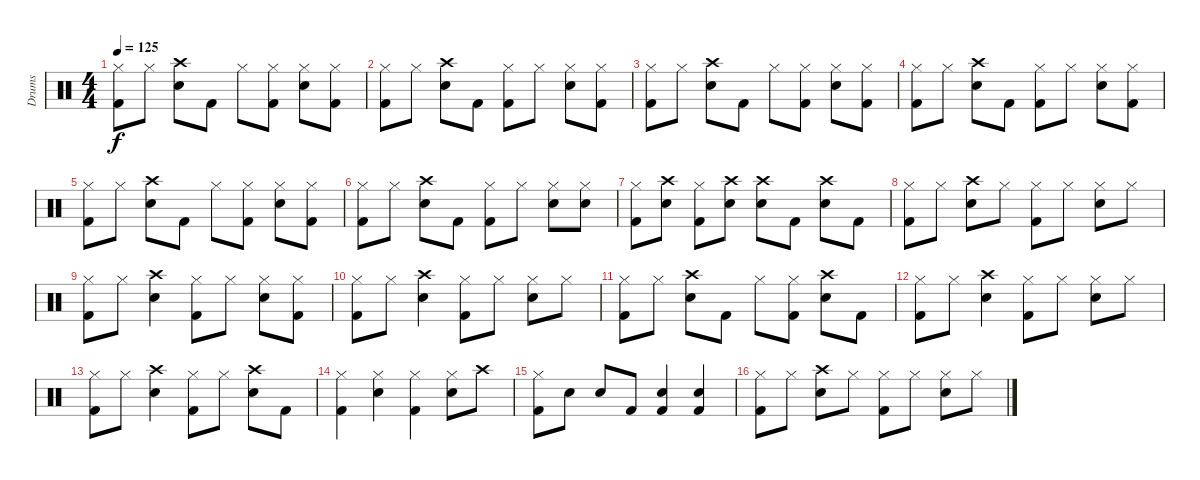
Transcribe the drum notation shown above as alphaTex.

\track ("Drums" "Drums") {instrument percussion}
\staff {score}
\articulation defaults
\ts (4 4)
\tempo 125
\clef neutral
\ks c
("Hi-Hat (closed)" "Kick (hit) 2").8{dy f} "Hi-Hat (closed)".8 ("Crash high (hit)" "Electric Snare (hit)").8 "Kick (hit) 2".8 "Hi-Hat (closed)".8 ("Hi-Hat (closed)" "Kick (hit) 2").8 ("Hi-Hat (closed)" "Electric Snare (hit)").8 ("Hi-Hat (closed)" "Kick (hit) 2").8 |
("Hi-Hat (closed)" "Kick (hit) 2").8 "Hi-Hat (closed)".8 ("Crash high (hit)" "Electric Snare (hit)").8 "Kick (hit) 2".8 ("Hi-Hat (closed)" "Kick (hit) 2").8 "Hi-Hat (closed)".8 ("Hi-Hat (closed)" "Electric Snare (hit)").8 ("Hi-Hat (closed)" "Kick (hit) 2").8 |
("Hi-Hat (closed)" "Kick (hit) 2").8 "Hi-Hat (closed)".8 ("Crash high (hit)" "Electric Snare (hit)").8 "Kick (hit) 2".8 "Hi-Hat (closed)".8 ("Hi-Hat (closed)" "Kick (hit) 2").8 ("Hi-Hat (closed)" "Electric Snare (hit)").8 ("Hi-Hat (closed)" "Kick (hit) 2").8 |
("Hi-Hat (closed)" "Kick (hit) 2").8 "Hi-Hat (closed)".8 ("Crash high (hit)" "Electric Snare (hit)").8 "Kick (hit) 2".8 ("Hi-Hat (closed)" "Kick (hit) 2").8 "Hi-Hat (closed)".8 ("Hi-Hat (closed)" "Electric Snare (hit)").8 ("Hi-Hat (closed)" "Kick (hit) 2").8 |
("Hi-Hat (closed)" "Kick (hit) 2").8 "Hi-Hat (closed)".8 ("Crash high (hit)" "Electric Snare (hit)").8 "Kick (hit) 2".8 "Hi-Hat (closed)".8 ("Hi-Hat (closed)" "Kick (hit) 2").8 ("Hi-Hat (closed)" "Electric Snare (hit)").8 ("Hi-Hat (closed)" "Kick (hit) 2").8 |
("Hi-Hat (closed)" "Kick (hit) 2").8 "Hi-Hat (closed)".8 ("Crash high (hit)" "Electric Snare (hit)").8 "Kick (hit) 2".8 ("Hi-Hat (closed)" "Kick (hit) 2").8 "Hi-Hat (closed)".8 ("Hi-Hat (closed)" "Electric Snare (hit)").8 ("Hi-Hat (closed)" "Electric Snare (hit)").8 |
("Hi-Hat (closed)" "Kick (hit) 2").8 ("Crash high (hit)" "Electric Snare (hit)").8 ("Hi-Hat (closed)" "Kick (hit) 2").8 ("Crash high (hit)" "Electric Snare (hit)").8 ("Crash high (hit)" "Electric Snare (hit)").8 "Kick (hit) 2".8 ("Crash high (hit)" "Electric Snare (hit)").8 "Kick (hit) 2".8 |
("Hi-Hat (closed)" "Kick (hit) 2").8 "Hi-Hat (closed)".8 ("Crash high (hit)" "Electric Snare (hit)").8 "Hi-Hat (closed)".8 ("Hi-Hat (closed)" "Kick (hit) 2").8 "Hi-Hat (closed)".8 ("Hi-Hat (closed)" "Electric Snare (hit)").8 "Hi-Hat (closed)".8 |
("Hi-Hat (closed)" "Kick (hit) 2").8 "Hi-Hat (closed)".8 ("Crash high (hit)" "Electric Snare (hit)").4 ("Hi-Hat (closed)" "Kick (hit) 2").8 "Hi-Hat (closed)".8 ("Hi-Hat (closed)" "Electric Snare (hit)").8 ("Hi-Hat (closed)" "Kick (hit) 2").8 |
("Hi-Hat (closed)" "Kick (hit) 2").8 "Hi-Hat (closed)".8 ("Crash high (hit)" "Electric Snare (hit)").4 ("Hi-Hat (closed)" "Kick (hit) 2").8 "Hi-Hat (closed)".8 ("Hi-Hat (closed)" "Electric Snare (hit)").8 "Hi-Hat (closed)".8 |
("Hi-Hat (closed)" "Kick (hit) 2").8 "Hi-Hat (closed)".8 ("Crash high (hit)" "Electric Snare (hit)").8 "Kick (hit) 2".8 "Hi-Hat (closed)".8 ("Hi-Hat (closed)" "Kick (hit) 2").8 ("Crash high (hit)" "Electric Snare (hit)").8 "Kick (hit) 2".8 |
("Hi-Hat (closed)" "Kick (hit) 2").8 "Hi-Hat (closed)".8 ("Crash high (hit)" "Electric Snare (hit)").4 ("Hi-Hat (closed)" "Kick (hit) 2").8 "Hi-Hat (closed)".8 ("Hi-Hat (closed)" "Electric Snare (hit)").8 "Hi-Hat (closed)".8 |
("Hi-Hat (closed)" "Kick (hit) 2").8 "Hi-Hat (closed)".8 ("Crash high (hit)" "Electric Snare (hit)").4 ("Hi-Hat (closed)" "Kick (hit) 2").8 "Hi-Hat (closed)".8 ("Crash high (hit)" "Electric Snare (hit)").8 "Kick (hit) 2".8 |
("Hi-Hat (closed)" "Kick (hit) 2").4 ("Hi-Hat (closed)" "Electric Snare (hit)").4 ("Hi-Hat (closed)" "Kick (hit) 2").4 ("Hi-Hat (closed)" "Electric Snare (hit)").8 "Crash high (hit)".8 |
("Hi-Hat (closed)" "Kick (hit) 2").8 "Electric Snare (hit)".8 "Electric Snare (hit)".8 "Kick (hit) 2".8 ("Electric Snare (hit)" "Kick (hit) 2").4 ("Electric Snare (hit)" "Kick (hit) 2").4 |
("Hi-Hat (closed)" "Kick (hit) 2").8 "Hi-Hat (closed)".8 ("Crash high (hit)" "Electric Snare (hit)").8 "Hi-Hat (closed)".8 ("Hi-Hat (closed)" "Kick (hit) 2").8 "Hi-Hat (closed)".8 ("Hi-Hat (closed)" "Electric Snare (hit)").8 "Hi-Hat (closed)".8
